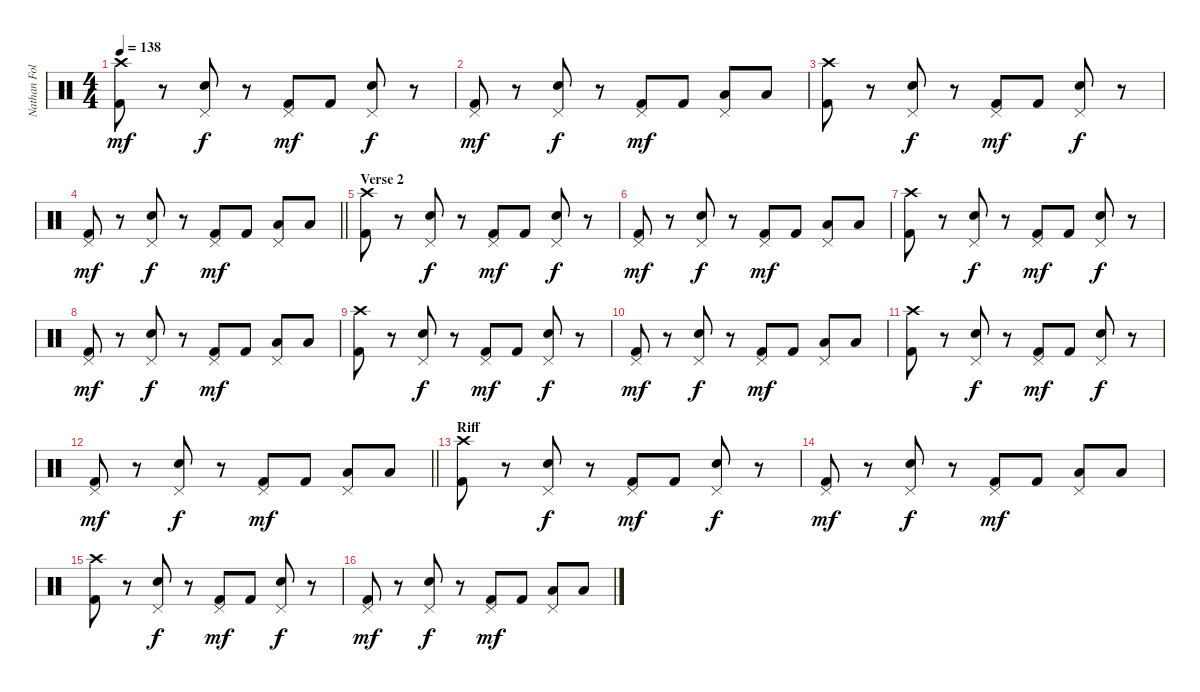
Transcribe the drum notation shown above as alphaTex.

\track ("Nathan Followill" "Nathan Fol") {instrument percussion}
\staff {score}
\articulation defaults
\ts (4 4)
\tempo 138
\clef neutral
\ks c
("Crash high (hit)" "Kick (hit) 2").8{dy mf} r.8 ("Pedal Hi-Hat (hit)" "Snare (hit) 2").8{dy f} r.8 ("Pedal Hi-Hat (hit)" "Kick (hit) 2").8{dy mf} "Kick (hit) 2".8 ("Pedal Hi-Hat (hit)" "Snare (hit) 2").8{dy f} r.8 |
("Pedal Hi-Hat (hit)" "Kick (hit) 2").8{dy mf} r.8 ("Pedal Hi-Hat (hit)" "Snare (hit) 2").8{dy f} r.8 ("Pedal Hi-Hat (hit)" "Kick (hit) 2").8{dy mf} "Kick (hit) 2".8 ("Pedal Hi-Hat (hit)" "Low Floor Tom (hit)").8 "Low Floor Tom (hit)".8 |
("Crash high (hit)" "Kick (hit) 2").8 r.8 ("Pedal Hi-Hat (hit)" "Snare (hit) 2").8{dy f} r.8 ("Pedal Hi-Hat (hit)" "Kick (hit) 2").8{dy mf} "Kick (hit) 2".8 ("Pedal Hi-Hat (hit)" "Snare (hit) 2").8{dy f} r.8 |
\barLineRight lightlight
("Pedal Hi-Hat (hit)" "Kick (hit) 2").8{dy mf} r.8 ("Pedal Hi-Hat (hit)" "Snare (hit) 2").8{dy f} r.8 ("Pedal Hi-Hat (hit)" "Kick (hit) 2").8{dy mf} "Kick (hit) 2".8 ("Pedal Hi-Hat (hit)" "Low Floor Tom (hit)").8 "Low Floor Tom (hit)".8 |
\section ("" "Verse 2")
("Crash high (hit)" "Kick (hit) 2").8 r.8 ("Pedal Hi-Hat (hit)" "Snare (hit) 2").8{dy f} r.8 ("Pedal Hi-Hat (hit)" "Kick (hit) 2").8{dy mf} "Kick (hit) 2".8 ("Pedal Hi-Hat (hit)" "Snare (hit) 2").8{dy f} r.8 |
("Pedal Hi-Hat (hit)" "Kick (hit) 2").8{dy mf} r.8 ("Pedal Hi-Hat (hit)" "Snare (hit) 2").8{dy f} r.8 ("Pedal Hi-Hat (hit)" "Kick (hit) 2").8{dy mf} "Kick (hit) 2".8 ("Pedal Hi-Hat (hit)" "Low Floor Tom (hit)").8 "Low Floor Tom (hit)".8 |
("Crash high (hit)" "Kick (hit) 2").8 r.8 ("Pedal Hi-Hat (hit)" "Snare (hit) 2").8{dy f} r.8 ("Pedal Hi-Hat (hit)" "Kick (hit) 2").8{dy mf} "Kick (hit) 2".8 ("Pedal Hi-Hat (hit)" "Snare (hit) 2").8{dy f} r.8 |
("Pedal Hi-Hat (hit)" "Kick (hit) 2").8{dy mf} r.8 ("Pedal Hi-Hat (hit)" "Snare (hit) 2").8{dy f} r.8 ("Pedal Hi-Hat (hit)" "Kick (hit) 2").8{dy mf} "Kick (hit) 2".8 ("Pedal Hi-Hat (hit)" "Low Floor Tom (hit)").8 "Low Floor Tom (hit)".8 |
("Crash high (hit)" "Kick (hit) 2").8 r.8 ("Pedal Hi-Hat (hit)" "Snare (hit) 2").8{dy f} r.8 ("Pedal Hi-Hat (hit)" "Kick (hit) 2").8{dy mf} "Kick (hit) 2".8 ("Pedal Hi-Hat (hit)" "Snare (hit) 2").8{dy f} r.8 |
("Pedal Hi-Hat (hit)" "Kick (hit) 2").8{dy mf} r.8 ("Pedal Hi-Hat (hit)" "Snare (hit) 2").8{dy f} r.8 ("Pedal Hi-Hat (hit)" "Kick (hit) 2").8{dy mf} "Kick (hit) 2".8 ("Pedal Hi-Hat (hit)" "Low Floor Tom (hit)").8 "Low Floor Tom (hit)".8 |
("Crash high (hit)" "Kick (hit) 2").8 r.8 ("Pedal Hi-Hat (hit)" "Snare (hit) 2").8{dy f} r.8 ("Pedal Hi-Hat (hit)" "Kick (hit) 2").8{dy mf} "Kick (hit) 2".8 ("Pedal Hi-Hat (hit)" "Snare (hit) 2").8{dy f} r.8 |
\barLineRight lightlight
("Pedal Hi-Hat (hit)" "Kick (hit) 2").8{dy mf} r.8 ("Pedal Hi-Hat (hit)" "Snare (hit) 2").8{dy f} r.8 ("Pedal Hi-Hat (hit)" "Kick (hit) 2").8{dy mf} "Kick (hit) 2".8 ("Pedal Hi-Hat (hit)" "Low Floor Tom (hit)").8 "Low Floor Tom (hit)".8 |
\section ("" "Riff")
("Crash high (hit)" "Kick (hit) 2").8 r.8 ("Pedal Hi-Hat (hit)" "Snare (hit) 2").8{dy f} r.8 ("Pedal Hi-Hat (hit)" "Kick (hit) 2").8{dy mf} "Kick (hit) 2".8 ("Pedal Hi-Hat (hit)" "Snare (hit) 2").8{dy f} r.8 |
("Pedal Hi-Hat (hit)" "Kick (hit) 2").8{dy mf} r.8 ("Pedal Hi-Hat (hit)" "Snare (hit) 2").8{dy f} r.8 ("Pedal Hi-Hat (hit)" "Kick (hit) 2").8{dy mf} "Kick (hit) 2".8 ("Pedal Hi-Hat (hit)" "Low Floor Tom (hit)").8 "Low Floor Tom (hit)".8 |
("Crash high (hit)" "Kick (hit) 2").8 r.8 ("Pedal Hi-Hat (hit)" "Snare (hit) 2").8{dy f} r.8 ("Pedal Hi-Hat (hit)" "Kick (hit) 2").8{dy mf} "Kick (hit) 2".8 ("Pedal Hi-Hat (hit)" "Snare (hit) 2").8{dy f} r.8 |
("Pedal Hi-Hat (hit)" "Kick (hit) 2").8{dy mf} r.8 ("Pedal Hi-Hat (hit)" "Snare (hit) 2").8{dy f} r.8 ("Pedal Hi-Hat (hit)" "Kick (hit) 2").8{dy mf} "Kick (hit) 2".8 ("Pedal Hi-Hat (hit)" "Low Floor Tom (hit)").8 "Low Floor Tom (hit)".8
